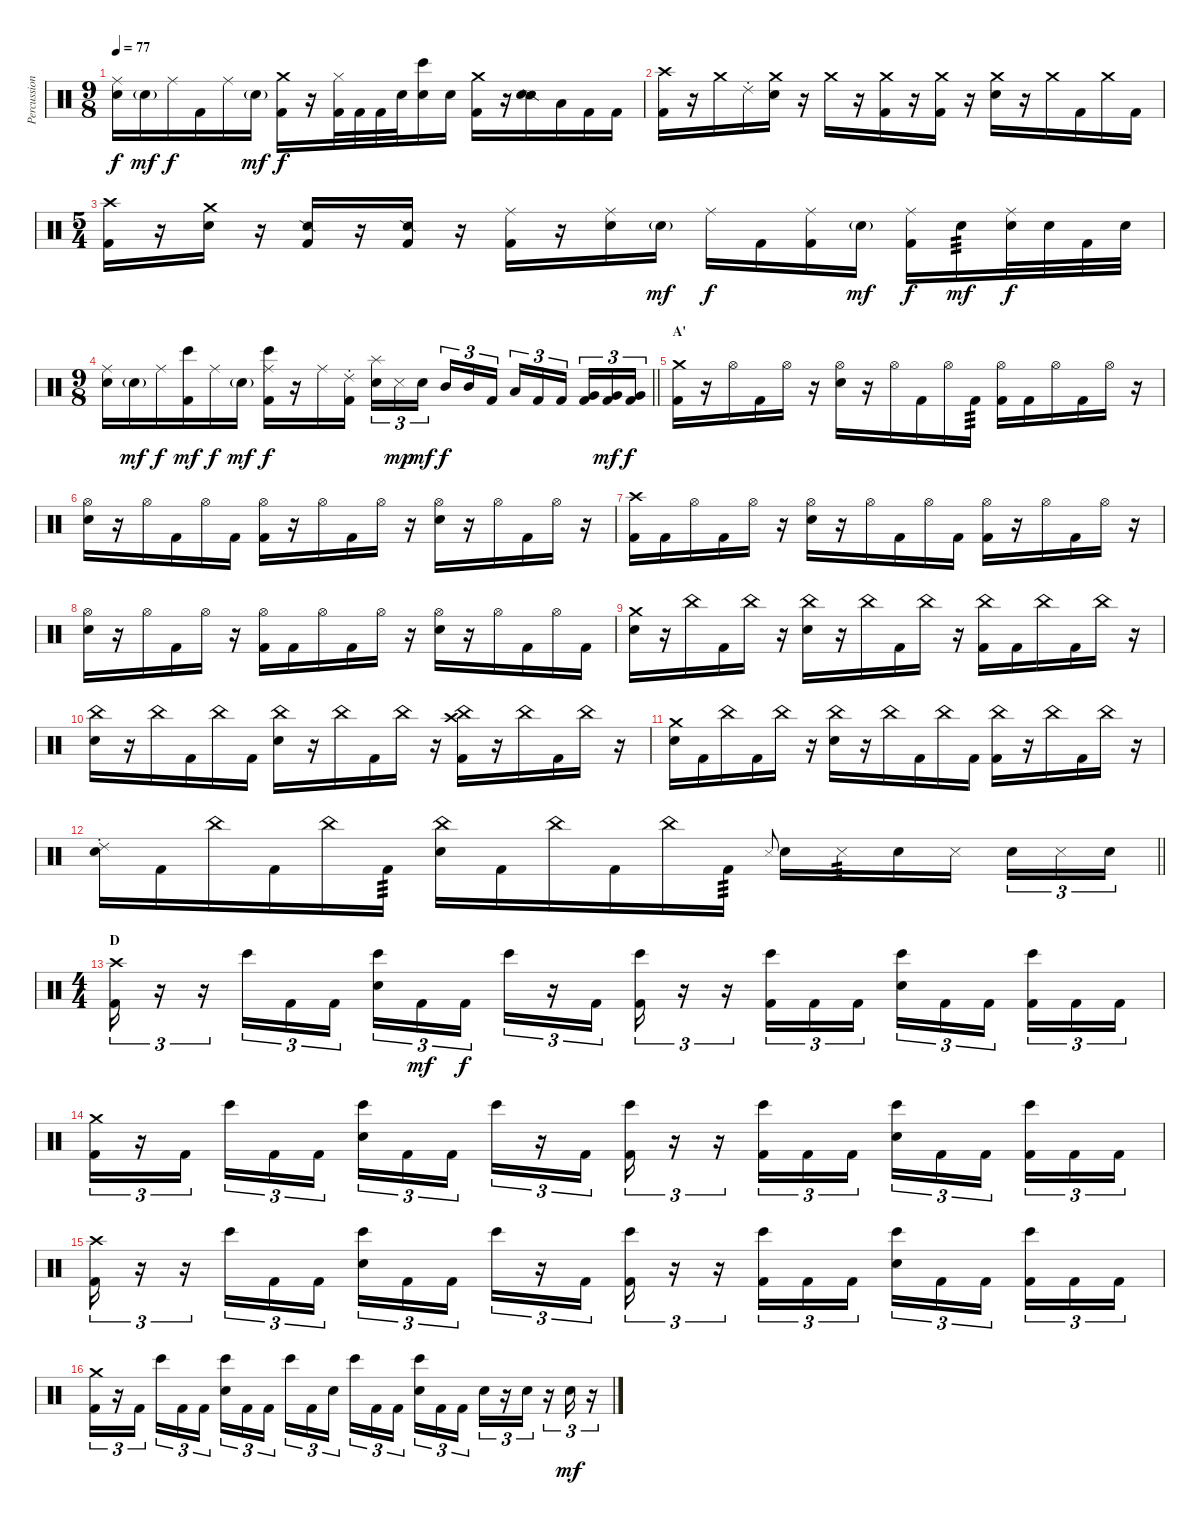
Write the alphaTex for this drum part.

\track ("Percussion" "Percussion") {instrument percussion}
\staff {score}
\articulation defaults
\ts (9 8)
\tempo 77
\clef neutral
\ks c
("Ride (middle)" "Snare (hit) 2").16{dy f} "Snare (hit) 2"{g}.16{dy mf} "Ride (middle)".16{dy f} "Kick (hit) 2".16 "Ride (middle)".16 "Snare (hit) 2"{g}.16{dy mf} ("Crash medium (hit)" "Kick (hit) 2").16{dy f} r.16 ("Hi-Hat (closed)" "Kick (hit) 2").32 "Kick (hit) 2".32 "Kick (hit) 2".32 "Snare (hit) 2".32 ("Bongo High (hit)" "Snare (hit) 2").16 "Snare (hit) 2".16 ("Crash medium (hit)" "Kick (hit) 2").16 r.16 ("Snare (side stick) 2" "Snare (hit) 2").16 "Low Tom (hit)".16 "Kick (hit) 2".16 "Kick (hit) 2".16 |
("Crash high (hit)" "Kick (hit) 2").16 r.16 "Crash medium (hit)".16 "Ride (choke) 2".16 ("Crash medium (hit)" "Snare (hit) 2").16 r.16 "Crash medium (hit)".16 r.16 ("Crash medium (hit)" "Kick (hit) 2").16 r.16 ("Crash medium (hit)" "Kick (hit) 2").16 r.16 ("Crash medium (hit)" "Snare (hit) 2").16 r.16 "Crash medium (hit)".16 "Kick (hit) 2".16 "Crash medium (hit)".16 "Kick (hit) 2".16 |
\ts (5 4)
("Crash high (hit)" "Kick (hit) 2").16 r.16 ("Crash medium (hit)" "Snare (hit) 2").16 r.16 ("Snare (side stick) 2" "Kick (hit) 2").16 r.16 ("Snare (side stick) 2" "Kick (hit) 2").16 r.16 ("Ride (middle)" "Kick (hit) 2").16 r.16 ("Ride (middle)" "Snare (hit) 2").16 "Snare (hit) 2"{g}.16{dy mf} "Ride (middle)".16{dy f} "Kick (hit) 2".16 ("Ride (middle)" "Kick (hit) 2").16 "Snare (hit) 2"{g}.16{dy mf} ("Ride (middle)" "Kick (hit) 2").16{dy f} "Snare (hit) 2".16{tp 3 dy mf} ("Ride (middle)" "Snare (hit) 2").32{dy f} "Snare (hit) 2".32 "Kick (hit) 2".32 "Snare (hit) 2".32 |
\ts (9 8)
\barLineRight lightlight
("Ride (middle)" "Snare (hit) 2").16 "Snare (hit) 2"{g}.16{dy mf} "Ride (middle)".16{dy f} ("Bongo High (hit)" "Kick (hit) 2").16{dy mf} "Ride (middle)".16{dy f} "Snare (hit) 2"{g}.16{dy mf} ("Ride (middle)" "Bongo High (hit)" "Kick (hit) 2").16{dy f} r.16 "Ride (middle)".16 ("Ride (choke) 2" "Kick (hit) 2").16{beam splitsecondary} ("Splash (hit)" "Snare (hit) 2").16{tu (3 2)} "Metronome (hit)".16{tu (3 2) dy mp} "Snare (hit) 2".16{tu (3 2) dy mf} "Mid Tom (hit)".16{tu (3 2) dy f} "Mid Tom (hit)".16{tu (3 2)} "Kick (hit) 2".16{tu (3 2) beam splitsecondary} "Low Tom (hit)".16{tu (3 2)} "Kick (hit) 2".16{tu (3 2)} "Kick (hit) 2".16{tu (3 2) beam splitsecondary} ("Very Low Tom (hit)" "Kick (hit) 2").16{tu (3 2)} ("Very Low Tom (hit)" "Kick (hit) 2").16{tu (3 2) dy mf} ("Very Low Tom (hit)" "Kick (hit) 2").16{tu (3 2) dy f} |
\section ("" "A'")
("Crash medium (hit)" "Kick (hit) 2").16 r.16 "Hi-Hat (open)".16 "Kick (hit) 2".16 "Hi-Hat (open)".16 r.16 ("Hi-Hat (open)" "Snare (hit) 2").16 r.16 "Hi-Hat (open)".16 "Kick (hit) 2".16 "Hi-Hat (open)".16 "Kick (hit) 2".16{tp 3} ("Hi-Hat (open)" "Kick (hit) 2").16 "Kick (hit) 2".16 "Hi-Hat (open)".16 "Kick (hit) 2".16 "Hi-Hat (open)".16 r.16 |
("Hi-Hat (open)" "Snare (hit) 2").16 r.16 "Hi-Hat (open)".16 "Kick (hit) 2".16 "Hi-Hat (open)".16 "Kick (hit) 2".16 ("Hi-Hat (open)" "Kick (hit) 2").16 r.16 "Hi-Hat (open)".16 "Kick (hit) 2".16 "Hi-Hat (open)".16 r.16 ("Hi-Hat (open)" "Snare (hit) 2").16 r.16 "Hi-Hat (open)".16 "Kick (hit) 2".16 "Hi-Hat (open)".16 r.16 |
("Crash high (hit)" "Kick (hit) 2").16 "Kick (hit) 2".16 "Hi-Hat (open)".16 "Kick (hit) 2".16 "Hi-Hat (open)".16 r.16 ("Hi-Hat (open)" "Snare (hit) 2").16 r.16 "Hi-Hat (open)".16 "Kick (hit) 2".16 "Hi-Hat (open)".16 "Kick (hit) 2".16 ("Hi-Hat (open)" "Kick (hit) 2").16 r.16 "Hi-Hat (open)".16 "Kick (hit) 2".16 "Hi-Hat (open)".16 r.16 |
("Hi-Hat (open)" "Snare (hit) 2").16 r.16 "Hi-Hat (open)".16 "Kick (hit) 2".16 "Hi-Hat (open)".16 r.16 ("Hi-Hat (open)" "Kick (hit) 2").16 "Kick (hit) 2".16 "Hi-Hat (open)".16 "Kick (hit) 2".16 "Hi-Hat (open)".16 r.16 ("Hi-Hat (open)" "Snare (hit) 2").16 r.16 "Hi-Hat (open)".16 "Kick (hit) 2".16 "Hi-Hat (open)".16 "Kick (hit) 2".16 |
("Crash medium (hit)" "Snare (hit) 2").16 r.16 "China (hit)".16 "Kick (hit) 2".16 "China (hit)".16 r.16 ("China (hit)" "Snare (hit) 2").16 r.16 "China (hit)".16 "Kick (hit) 2".16 "China (hit)".16 r.16 ("China (hit)" "Kick (hit) 2").16 "Kick (hit) 2".16 "China (hit)".16 "Kick (hit) 2".16 "China (hit)".16 r.16 |
("China (hit)" "Snare (hit) 2").16 r.16 "China (hit)".16 "Kick (hit) 2".16 "China (hit)".16 "Kick (hit) 2".16 ("China (hit)" "Snare (hit) 2").16 r.16 "China (hit)".16 "Kick (hit) 2".16 "China (hit)".16 r.16 ("China (hit)" "Crash high (hit)" "Kick (hit) 2").16 r.16 "China (hit)".16 "Kick (hit) 2".16 "China (hit)".16 r.16 |
("Crash medium (hit)" "Snare (hit) 2").16 "Kick (hit) 2".16 "China (hit)".16 "Kick (hit) 2".16 "China (hit)".16 r.16 ("China (hit)" "Snare (hit) 2").16 r.16 "China (hit)".16 "Kick (hit) 2".16 "China (hit)".16 "Kick (hit) 2".16 ("China (hit)" "Kick (hit) 2").16 r.16 "China (hit)".16 "Kick (hit) 2".16 "China (hit)".16 r.16 |
\barLineRight lightlight
("Ride (choke) 2" "Snare (hit) 2").16 "Kick (hit) 2".16 "China (hit)".16 "Kick (hit) 2".16 "China (hit)".16 "Kick (hit) 2".16{tp 3} ("China (hit)" "Snare (hit) 2").16 "Kick (hit) 2".16 "China (hit)".16 "Kick (hit) 2".16 "China (hit)".16 "Kick (hit) 2".16{tp 3} "Metronome (hit)".8{gr onbeat} "Snare (hit) 2".16 "Metronome (hit)".16{tp 3} "Snare (hit) 2".16 "Metronome (hit)".16{beam splitsecondary} "Snare (hit) 2".16{tu (3 2)} "Metronome (hit)".16{tu (3 2)} "Snare (hit) 2".16{tu (3 2)} |
\ts (4 4)
\section ("" "D")
("Crash high (hit)" "Kick (hit) 2").16{tu (3 2)} r.16{tu (3 2)} r.16{tu (3 2)} "Bongo High (hit)".16{tu (3 2)} "Kick (hit) 2".16{tu (3 2)} "Kick (hit) 2".16{tu (3 2)} ("Bongo High (hit)" "Snare (hit) 2").16{tu (3 2)} "Kick (hit) 2".16{tu (3 2) dy mf} "Kick (hit) 2".16{tu (3 2) dy f beam splitsecondary} "Bongo High (hit)".16{tu (3 2)} r.16{tu (3 2)} "Kick (hit) 2".16{tu (3 2)} ("Bongo High (hit)" "Kick (hit) 2").16{tu (3 2)} r.16{tu (3 2)} r.16{tu (3 2)} ("Bongo High (hit)" "Kick (hit) 2").16{tu (3 2)} "Kick (hit) 2".16{tu (3 2)} "Kick (hit) 2".16{tu (3 2)} ("Bongo High (hit)" "Snare (hit) 2").16{tu (3 2)} "Kick (hit) 2".16{tu (3 2)} "Kick (hit) 2".16{tu (3 2) beam splitsecondary} ("Bongo High (hit)" "Kick (hit) 2").16{tu (3 2)} "Kick (hit) 2".16{tu (3 2)} "Kick (hit) 2".16{tu (3 2)} |
("Crash medium (hit)" "Kick (hit) 2").16{tu (3 2)} r.16{tu (3 2)} "Kick (hit) 2".16{tu (3 2) beam splitsecondary} "Bongo High (hit)".16{tu (3 2)} "Kick (hit) 2".16{tu (3 2)} "Kick (hit) 2".16{tu (3 2)} ("Bongo High (hit)" "Snare (hit) 2").16{tu (3 2)} "Kick (hit) 2".16{tu (3 2)} "Kick (hit) 2".16{tu (3 2) beam splitsecondary} "Bongo High (hit)".16{tu (3 2)} r.16{tu (3 2)} "Kick (hit) 2".16{tu (3 2)} ("Bongo High (hit)" "Kick (hit) 2").16{tu (3 2)} r.16{tu (3 2)} r.16{tu (3 2)} ("Bongo High (hit)" "Kick (hit) 2").16{tu (3 2)} "Kick (hit) 2".16{tu (3 2)} "Kick (hit) 2".16{tu (3 2)} ("Bongo High (hit)" "Snare (hit) 2").16{tu (3 2)} "Kick (hit) 2".16{tu (3 2)} "Kick (hit) 2".16{tu (3 2) beam splitsecondary} ("Bongo High (hit)" "Kick (hit) 2").16{tu (3 2)} "Kick (hit) 2".16{tu (3 2)} "Kick (hit) 2".16{tu (3 2)} |
("Crash high (hit)" "Kick (hit) 2").16{tu (3 2)} r.16{tu (3 2)} r.16{tu (3 2)} "Bongo High (hit)".16{tu (3 2)} "Kick (hit) 2".16{tu (3 2)} "Kick (hit) 2".16{tu (3 2)} ("Bongo High (hit)" "Snare (hit) 2").16{tu (3 2)} "Kick (hit) 2".16{tu (3 2)} "Kick (hit) 2".16{tu (3 2) beam splitsecondary} "Bongo High (hit)".16{tu (3 2)} r.16{tu (3 2)} "Kick (hit) 2".16{tu (3 2)} ("Bongo High (hit)" "Kick (hit) 2").16{tu (3 2)} r.16{tu (3 2)} r.16{tu (3 2)} ("Bongo High (hit)" "Kick (hit) 2").16{tu (3 2)} "Kick (hit) 2".16{tu (3 2)} "Kick (hit) 2".16{tu (3 2)} ("Bongo High (hit)" "Snare (hit) 2").16{tu (3 2)} "Kick (hit) 2".16{tu (3 2)} "Kick (hit) 2".16{tu (3 2) beam splitsecondary} ("Bongo High (hit)" "Kick (hit) 2").16{tu (3 2)} "Kick (hit) 2".16{tu (3 2)} "Kick (hit) 2".16{tu (3 2)} |
("Crash medium (hit)" "Kick (hit) 2").16{tu (3 2)} r.16{tu (3 2)} "Kick (hit) 2".16{tu (3 2) beam splitsecondary} "Bongo High (hit)".16{tu (3 2)} "Kick (hit) 2".16{tu (3 2)} "Kick (hit) 2".16{tu (3 2)} ("Bongo High (hit)" "Snare (hit) 2").16{tu (3 2)} "Kick (hit) 2".16{tu (3 2)} "Kick (hit) 2".16{tu (3 2) beam splitsecondary} "Bongo High (hit)".16{tu (3 2)} "Kick (hit) 2".16{tu (3 2)} "Snare (hit) 2".16{tu (3 2)} "Bongo High (hit)".16{tu (3 2)} "Kick (hit) 2".16{tu (3 2)} "Kick (hit) 2".16{tu (3 2) beam splitsecondary} ("Bongo High (hit)" "Snare (hit) 2").16{tu (3 2)} "Kick (hit) 2".16{tu (3 2)} "Kick (hit) 2".16{tu (3 2)} "Snare (hit) 2".16{tu (3 2)} r.16{tu (3 2)} "Snare (hit) 2".16{tu (3 2)} r.16{tu (3 2)} "Snare (hit) 2".16{tu (3 2) dy mf} r.16{tu (3 2)}
